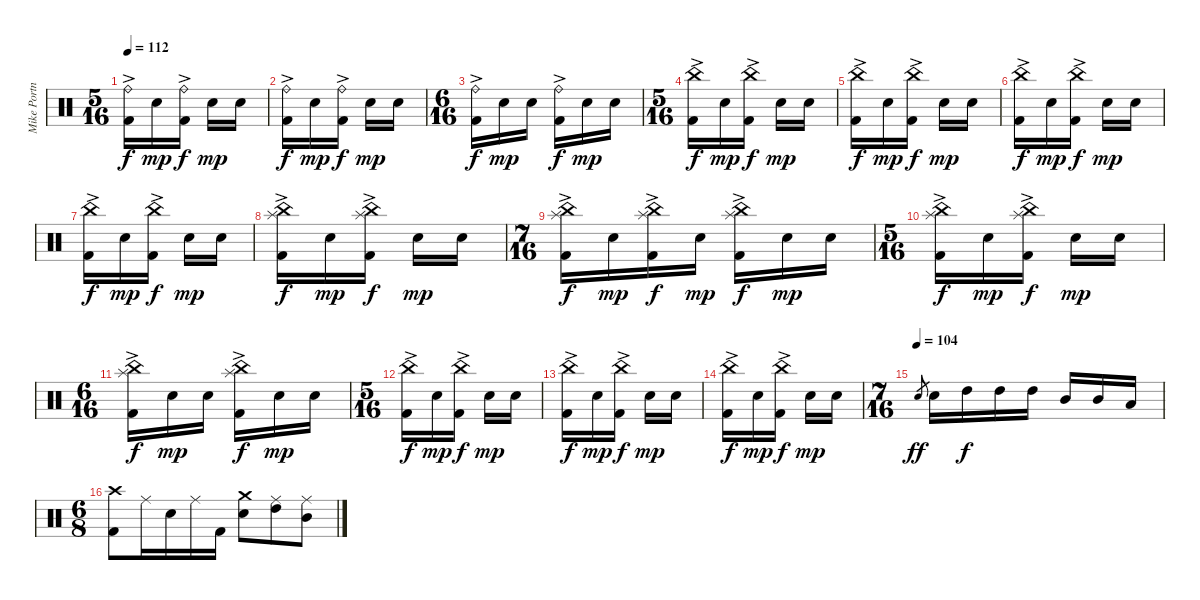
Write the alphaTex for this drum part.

\track ("Mike Portnoy" "Mike Portn") {instrument percussion}
\staff {score}
\articulation defaults
\ts (5 16)
\tempo 112
\clef neutral
\ks c
("Ride (bell)"{ac} "Kick (hit) 2").16{dy f} "Electric Snare (hit)".16{dy mp} ("Ride (bell)"{ac} "Kick (hit) 2").16{dy f} "Electric Snare (hit)".16{dy mp} "Electric Snare (hit)".16 |
("Ride (bell)"{ac} "Kick (hit) 2").16{dy f} "Electric Snare (hit)".16{dy mp} ("Ride (bell)"{ac} "Kick (hit) 2").16{dy f} "Electric Snare (hit)".16{dy mp} "Electric Snare (hit)".16 |
\ts (6 16)
("Ride (bell)"{ac} "Kick (hit) 2").16{dy f} "Electric Snare (hit)".16{dy mp} "Electric Snare (hit)".16 ("Ride (bell)"{ac} "Kick (hit) 2").16{dy f} "Electric Snare (hit)".16{dy mp} "Electric Snare (hit)".16 |
\ts (5 16)
("China (hit)"{ac} "Kick (hit) 2").16{dy f} "Electric Snare (hit)".16{dy mp} ("China (hit)"{ac} "Kick (hit) 2").16{dy f} "Electric Snare (hit)".16{dy mp} "Electric Snare (hit)".16 |
("China (hit)"{ac} "Kick (hit) 2").16{dy f} "Electric Snare (hit)".16{dy mp} ("China (hit)"{ac} "Kick (hit) 2").16{dy f} "Electric Snare (hit)".16{dy mp} "Electric Snare (hit)".16 |
("China (hit)"{ac} "Kick (hit) 2").16{dy f} "Electric Snare (hit)".16{dy mp} ("China (hit)"{ac} "Kick (hit) 2").16{dy f} "Electric Snare (hit)".16{dy mp} "Electric Snare (hit)".16 |
("China (hit)"{ac} "Kick (hit) 2").16{dy f} "Electric Snare (hit)".16{dy mp} ("China (hit)"{ac} "Kick (hit) 2").16{dy f} "Electric Snare (hit)".16{dy mp} "Electric Snare (hit)".16 |
("China (hit)"{ac} "Splash (hit)" "Kick (hit) 2").16{dy f} "Electric Snare (hit)".16{dy mp} ("China (hit)"{ac} "Splash (hit)" "Kick (hit) 2").16{dy f} "Electric Snare (hit)".16{dy mp} "Electric Snare (hit)".16 |
\ts (7 16)
("China (hit)" "Splash (hit)"{ac} "Kick (hit) 2").16{dy f} "Electric Snare (hit)".16{dy mp} ("China (hit)" "Splash (hit)"{ac} "Kick (hit) 2").16{dy f} "Electric Snare (hit)".16{dy mp} ("China (hit)" "Splash (hit)"{ac} "Kick (hit) 2").16{dy f} "Electric Snare (hit)".16{dy mp} "Electric Snare (hit)".16 |
\ts (5 16)
("China (hit)"{ac} "Splash (hit)" "Kick (hit) 2").16{dy f} "Electric Snare (hit)".16{dy mp} ("China (hit)"{ac} "Splash (hit)" "Kick (hit) 2").16{dy f} "Electric Snare (hit)".16{dy mp} "Electric Snare (hit)".16 |
\ts (6 16)
("China (hit)" "Splash (hit)"{ac} "Kick (hit) 2").16{dy f} "Electric Snare (hit)".16{dy mp} "Electric Snare (hit)".16 ("China (hit)" "Splash (hit)"{ac} "Kick (hit) 2").16{dy f} "Electric Snare (hit)".16{dy mp} "Electric Snare (hit)".16 |
\ts (5 16)
("China (hit)"{ac} "Kick (hit) 2").16{dy f} "Electric Snare (hit)".16{dy mp} ("China (hit)"{ac} "Kick (hit) 2").16{dy f} "Electric Snare (hit)".16{dy mp} "Electric Snare (hit)".16 |
("China (hit)"{ac} "Kick (hit) 2").16{dy f} "Electric Snare (hit)".16{dy mp} ("China (hit)"{ac} "Kick (hit) 2").16{dy f} "Electric Snare (hit)".16{dy mp} "Electric Snare (hit)".16 |
("China (hit)"{ac} "Kick (hit) 2").16{dy f} "Electric Snare (hit)".16{dy mp} ("China (hit)"{ac} "Kick (hit) 2").16{dy f} "Electric Snare (hit)".16{dy mp} "Electric Snare (hit)".16 |
\ts (7 16)
\tempo (104)
"Electric Snare (hit)"{h}.8{gr dy ff} "Electric Snare (hit)".16 "High Tom (hit)".16{dy f} "High Tom (hit)".16 "High Tom (hit)".16 "Mid Tom (hit)".16 "Mid Tom (hit)".16 "Low Tom (hit)".16 |
\ts (6 8)
("Crash high (hit)" "Kick (hit) 2").8 "Ride (middle)".16 "Electric Snare (hit)".16 "Ride (middle)".16 "Kick (hit) 2".16 ("Crash medium (hit)" "Electric Snare (hit)").8 ("Ride (middle)" "High Tom (hit)").8 ("Ride (middle)" "Mid Tom (hit)").8
